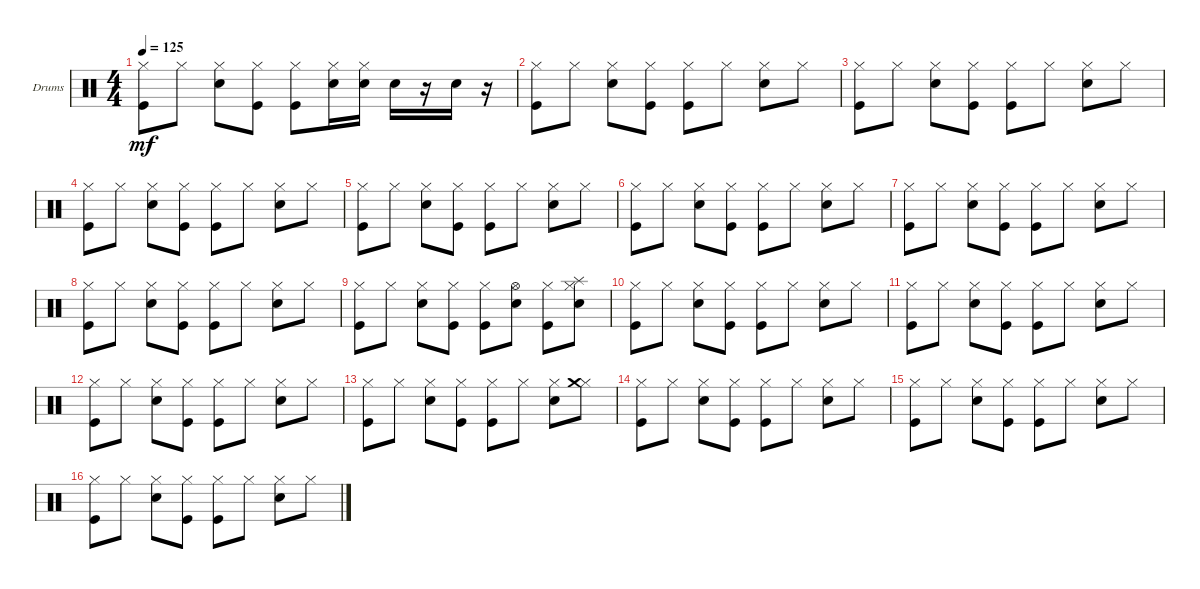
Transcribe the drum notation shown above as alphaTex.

\defaultSystemsLayout 4
\bracketExtendMode groupsimilarinstruments
\firstSystemTrackNameOrientation horizontal
\otherSystemsTrackNameOrientation horizontal
\track ("Drumkit" "Drums") {instrument percussion}
\staff {score}
\articulation defaults
\ts (4 4)
\tempo 125
\clef neutral
\ks c
("Hi-Hat (closed)" "Kick (hit)").8{dy mf} "Hi-Hat (closed)".8 ("Hi-Hat (closed)" "Snare (hit) 2").8 ("Hi-Hat (closed)" "Kick (hit)").8 ("Hi-Hat (closed)" "Kick (hit)").8 ("Hi-Hat (closed)" "Snare (hit) 2").16 ("Hi-Hat (closed)" "Snare (hit) 2").16 "Snare (hit) 2".16 r.16 "Snare (hit) 2".16 r.16 |
("Hi-Hat (closed)" "Kick (hit)").8 "Hi-Hat (closed)".8 ("Hi-Hat (closed)" "Snare (hit) 2").8 ("Hi-Hat (closed)" "Kick (hit)").8 ("Hi-Hat (closed)" "Kick (hit)").8 "Hi-Hat (closed)".8 ("Hi-Hat (closed)" "Snare (hit) 2").8 "Hi-Hat (closed)".8 |
("Hi-Hat (closed)" "Kick (hit)").8 "Hi-Hat (closed)".8 ("Hi-Hat (closed)" "Snare (hit) 2").8 ("Hi-Hat (closed)" "Kick (hit)").8 ("Hi-Hat (closed)" "Kick (hit)").8 "Hi-Hat (closed)".8 ("Hi-Hat (closed)" "Snare (hit) 2").8 "Hi-Hat (closed)".8 |
("Hi-Hat (closed)" "Kick (hit)").8 "Hi-Hat (closed)".8 ("Hi-Hat (closed)" "Snare (hit) 2").8 ("Hi-Hat (closed)" "Kick (hit)").8 ("Hi-Hat (closed)" "Kick (hit)").8 "Hi-Hat (closed)".8 ("Hi-Hat (closed)" "Snare (hit) 2").8 "Hi-Hat (closed)".8 |
("Hi-Hat (closed)" "Kick (hit)").8 "Hi-Hat (closed)".8 ("Hi-Hat (closed)" "Snare (hit) 2").8 ("Hi-Hat (closed)" "Kick (hit)").8 ("Hi-Hat (closed)" "Kick (hit)").8 "Hi-Hat (closed)".8 ("Hi-Hat (closed)" "Snare (hit) 2").8 "Hi-Hat (closed)".8 |
("Hi-Hat (closed)" "Kick (hit)").8 "Hi-Hat (closed)".8 ("Hi-Hat (closed)" "Snare (hit) 2").8 ("Hi-Hat (closed)" "Kick (hit)").8 ("Hi-Hat (closed)" "Kick (hit)").8 "Hi-Hat (closed)".8 ("Hi-Hat (closed)" "Snare (hit) 2").8 "Hi-Hat (closed)".8 |
("Hi-Hat (closed)" "Kick (hit)").8 "Hi-Hat (closed)".8 ("Hi-Hat (closed)" "Snare (hit) 2").8 ("Hi-Hat (closed)" "Kick (hit)").8 ("Hi-Hat (closed)" "Kick (hit)").8 "Hi-Hat (closed)".8 ("Hi-Hat (closed)" "Snare (hit) 2").8 "Hi-Hat (closed)".8 |
("Hi-Hat (closed)" "Kick (hit)").8 "Hi-Hat (closed)".8 ("Hi-Hat (closed)" "Snare (hit) 2").8 ("Hi-Hat (closed)" "Kick (hit)").8 ("Hi-Hat (closed)" "Kick (hit)").8 "Hi-Hat (closed)".8 ("Hi-Hat (closed)" "Snare (hit) 2").8 "Hi-Hat (closed)".8 |
("Hi-Hat (closed)" "Kick (hit)").8 "Hi-Hat (closed)".8 ("Hi-Hat (closed)" "Snare (hit) 2").8 ("Hi-Hat (closed)" "Kick (hit)").8 ("Kick (hit)" "Hi-Hat (closed)").8 ("Hi-Hat (open)" "Snare (hit) 2").8 ("Kick (hit)" "Hi-Hat (closed)").8 ("Hi-Hat (closed)" "Snare (hit) 2" "Splash (hit)").8 |
("Hi-Hat (closed)" "Kick (hit)").8 "Hi-Hat (closed)".8 ("Hi-Hat (closed)" "Snare (hit) 2").8 ("Hi-Hat (closed)" "Kick (hit)").8 ("Hi-Hat (closed)" "Kick (hit)").8 "Hi-Hat (closed)".8 ("Hi-Hat (closed)" "Snare (hit) 2").8 "Hi-Hat (closed)".8 |
("Hi-Hat (closed)" "Kick (hit)").8 "Hi-Hat (closed)".8 ("Hi-Hat (closed)" "Snare (hit) 2").8 ("Hi-Hat (closed)" "Kick (hit)").8 ("Hi-Hat (closed)" "Kick (hit)").8 "Hi-Hat (closed)".8 ("Hi-Hat (closed)" "Snare (hit) 2").8 "Hi-Hat (closed)".8 |
("Hi-Hat (closed)" "Kick (hit)").8 "Hi-Hat (closed)".8 ("Hi-Hat (closed)" "Snare (hit) 2").8 ("Hi-Hat (closed)" "Kick (hit)").8 ("Hi-Hat (closed)" "Kick (hit)").8 "Hi-Hat (closed)".8 ("Hi-Hat (closed)" "Snare (hit) 2").8 "Hi-Hat (closed)".8 |
("Hi-Hat (closed)" "Kick (hit)").8 "Hi-Hat (closed)".8 ("Hi-Hat (closed)" "Snare (hit) 2").8 ("Hi-Hat (closed)" "Kick (hit)").8 ("Hi-Hat (closed)" "Kick (hit)").8 "Hi-Hat (closed)".8 ("Hi-Hat (closed)" "Snare (hit) 2").8 ("Hi-Hat (closed)" "Crash medium (hit)").8 |
("Hi-Hat (closed)" "Kick (hit)").8 "Hi-Hat (closed)".8 ("Hi-Hat (closed)" "Snare (hit) 2").8 ("Hi-Hat (closed)" "Kick (hit)").8 ("Hi-Hat (closed)" "Kick (hit)").8 "Hi-Hat (closed)".8 ("Hi-Hat (closed)" "Snare (hit) 2").8 "Hi-Hat (closed)".8 |
("Hi-Hat (closed)" "Kick (hit)").8 "Hi-Hat (closed)".8 ("Hi-Hat (closed)" "Snare (hit) 2").8 ("Hi-Hat (closed)" "Kick (hit)").8 ("Hi-Hat (closed)" "Kick (hit)").8 "Hi-Hat (closed)".8 ("Hi-Hat (closed)" "Snare (hit) 2").8 "Hi-Hat (closed)".8 |
("Hi-Hat (closed)" "Kick (hit)").8 "Hi-Hat (closed)".8 ("Hi-Hat (closed)" "Snare (hit) 2").8 ("Hi-Hat (closed)" "Kick (hit)").8 ("Hi-Hat (closed)" "Kick (hit)").8 "Hi-Hat (closed)".8 ("Hi-Hat (closed)" "Snare (hit) 2").8 "Hi-Hat (closed)".8
